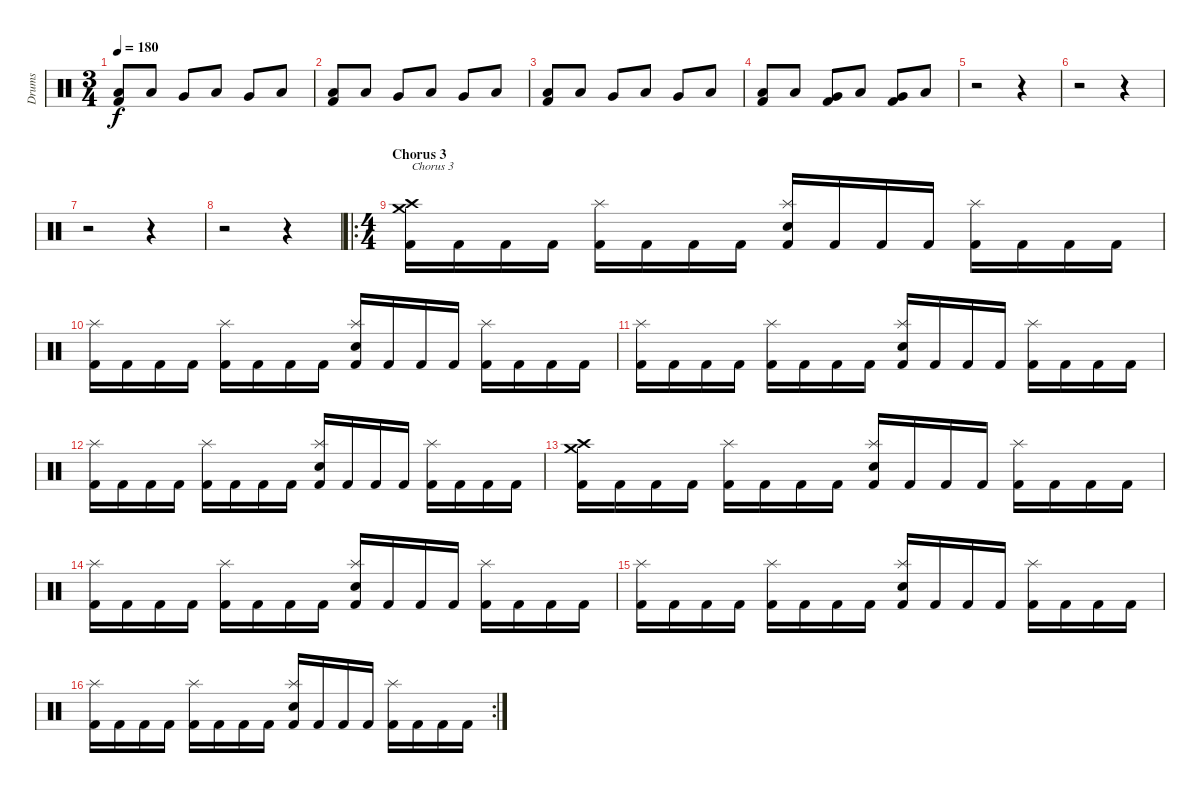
\track ("Drums" "Drums") {instrument percussion}
\staff {score}
\articulation defaults
\ts (3 4)
\tempo 180
\clef neutral
\ks c
("Kick (hit) 2" "Low Tom (hit)").8{dy f} "Low Floor Tom (hit)".8 "Very Low Tom (hit)".8 "Low Tom (hit)".8 "Very Low Tom (hit)".8 "Low Tom (hit)".8 |
("Kick (hit) 2" "Low Tom (hit)").8 "Low Floor Tom (hit)".8 "Very Low Tom (hit)".8 "Low Tom (hit)".8 "Very Low Tom (hit)".8 "Low Tom (hit)".8 |
("Kick (hit) 2" "Low Tom (hit)").8 "Low Floor Tom (hit)".8 "Very Low Tom (hit)".8 "Low Tom (hit)".8 "Very Low Tom (hit)".8 "Low Tom (hit)".8 |
("Kick (hit) 2" "Low Tom (hit)").8 "Low Floor Tom (hit)".8 ("Kick (hit) 2" "Very Low Tom (hit)").8 "Low Tom (hit)".8 ("Kick (hit) 2" "Very Low Tom (hit)").8 "Low Tom (hit)".8 |
r.2 r.4 |
r.2 r.4 |
r.2 r.4 |
r.2 r.4 |
\ro
\ts (4 4)
\section ("" "Chorus 3")
("Kick (hit) 2" "Crash high (hit)" "Crash medium (hit)").16{txt "Chorus 3"} "Kick (hit) 2".16 "Kick (hit) 2".16 "Kick (hit) 2".16 ("Kick (hit) 2" "Splash (hit)").16 "Kick (hit) 2".16 "Kick (hit) 2".16 "Kick (hit) 2".16 ("Kick (hit) 2" "Snare (hit) 2" "Splash (hit)").16 "Kick (hit) 2".16 "Kick (hit) 2".16 "Kick (hit) 2".16 ("Kick (hit) 2" "Splash (hit)").16 "Kick (hit) 2".16 "Kick (hit) 2".16 "Kick (hit) 2".16 |
("Kick (hit) 2" "Splash (hit)").16 "Kick (hit) 2".16 "Kick (hit) 2".16 "Kick (hit) 2".16 ("Kick (hit) 2" "Splash (hit)").16 "Kick (hit) 2".16 "Kick (hit) 2".16 "Kick (hit) 2".16 ("Kick (hit) 2" "Snare (hit) 2" "Splash (hit)").16 "Kick (hit) 2".16 "Kick (hit) 2".16 "Kick (hit) 2".16 ("Kick (hit) 2" "Splash (hit)").16 "Kick (hit) 2".16 "Kick (hit) 2".16 "Kick (hit) 2".16 |
("Kick (hit) 2" "Splash (hit)").16 "Kick (hit) 2".16 "Kick (hit) 2".16 "Kick (hit) 2".16 ("Kick (hit) 2" "Splash (hit)").16 "Kick (hit) 2".16 "Kick (hit) 2".16 "Kick (hit) 2".16 ("Kick (hit) 2" "Snare (hit) 2" "Splash (hit)").16 "Kick (hit) 2".16 "Kick (hit) 2".16 "Kick (hit) 2".16 ("Kick (hit) 2" "Splash (hit)").16 "Kick (hit) 2".16 "Kick (hit) 2".16 "Kick (hit) 2".16 |
("Kick (hit) 2" "Splash (hit)").16 "Kick (hit) 2".16 "Kick (hit) 2".16 "Kick (hit) 2".16 ("Kick (hit) 2" "Splash (hit)").16 "Kick (hit) 2".16 "Kick (hit) 2".16 "Kick (hit) 2".16 ("Kick (hit) 2" "Snare (hit) 2" "Splash (hit)").16 "Kick (hit) 2".16 "Kick (hit) 2".16 "Kick (hit) 2".16 ("Kick (hit) 2" "Splash (hit)").16 "Kick (hit) 2".16 "Kick (hit) 2".16 "Kick (hit) 2".16 |
("Kick (hit) 2" "Crash high (hit)" "Crash medium (hit)").16 "Kick (hit) 2".16 "Kick (hit) 2".16 "Kick (hit) 2".16 ("Kick (hit) 2" "Splash (hit)").16 "Kick (hit) 2".16 "Kick (hit) 2".16 "Kick (hit) 2".16 ("Kick (hit) 2" "Snare (hit) 2" "Splash (hit)").16 "Kick (hit) 2".16 "Kick (hit) 2".16 "Kick (hit) 2".16 ("Kick (hit) 2" "Splash (hit)").16 "Kick (hit) 2".16 "Kick (hit) 2".16 "Kick (hit) 2".16 |
("Kick (hit) 2" "Splash (hit)").16 "Kick (hit) 2".16 "Kick (hit) 2".16 "Kick (hit) 2".16 ("Kick (hit) 2" "Splash (hit)").16 "Kick (hit) 2".16 "Kick (hit) 2".16 "Kick (hit) 2".16 ("Kick (hit) 2" "Snare (hit) 2" "Splash (hit)").16 "Kick (hit) 2".16 "Kick (hit) 2".16 "Kick (hit) 2".16 ("Kick (hit) 2" "Splash (hit)").16 "Kick (hit) 2".16 "Kick (hit) 2".16 "Kick (hit) 2".16 |
("Kick (hit) 2" "Splash (hit)").16 "Kick (hit) 2".16 "Kick (hit) 2".16 "Kick (hit) 2".16 ("Kick (hit) 2" "Splash (hit)").16 "Kick (hit) 2".16 "Kick (hit) 2".16 "Kick (hit) 2".16 ("Kick (hit) 2" "Snare (hit) 2" "Splash (hit)").16 "Kick (hit) 2".16 "Kick (hit) 2".16 "Kick (hit) 2".16 ("Kick (hit) 2" "Splash (hit)").16 "Kick (hit) 2".16 "Kick (hit) 2".16 "Kick (hit) 2".16 |
\rc 2
("Kick (hit) 2" "Splash (hit)").16 "Kick (hit) 2".16 "Kick (hit) 2".16 "Kick (hit) 2".16 ("Kick (hit) 2" "Splash (hit)").16 "Kick (hit) 2".16 "Kick (hit) 2".16 "Kick (hit) 2".16 ("Kick (hit) 2" "Snare (hit) 2" "Splash (hit)").16 "Kick (hit) 2".16 "Kick (hit) 2".16 "Kick (hit) 2".16 ("Kick (hit) 2" "Splash (hit)").16 "Kick (hit) 2".16 "Kick (hit) 2".16 "Kick (hit) 2".16
